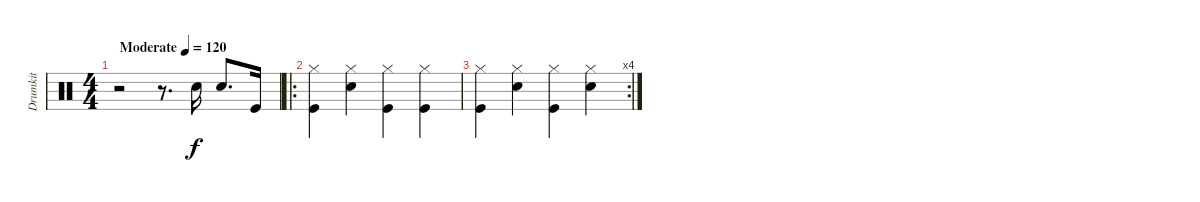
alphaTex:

\track ("Drumkit" "Drumkit") {instrument percussion}
\staff {score}
\articulation defaults
\ts (4 4)
\tempo (120 "Moderate")
\clef neutral
\ks c
r.2{dy f} r.8{d} "Snare (hit) 2".16 "Snare (hit) 2".8{d} "Kick (hit)".16 |
\ro
("Hi-Hat (closed)" "Kick (hit)").4 ("Snare (hit) 2" "Hi-Hat (closed)").4 ("Kick (hit)" "Hi-Hat (closed)").4 ("Kick (hit)" "Hi-Hat (closed)").4 |
\rc 4
("Hi-Hat (closed)" "Kick (hit)").4 ("Hi-Hat (closed)" "Snare (hit) 2").4 ("Hi-Hat (closed)" "Kick (hit)").4 ("Hi-Hat (closed)" "Snare (hit) 2").4
